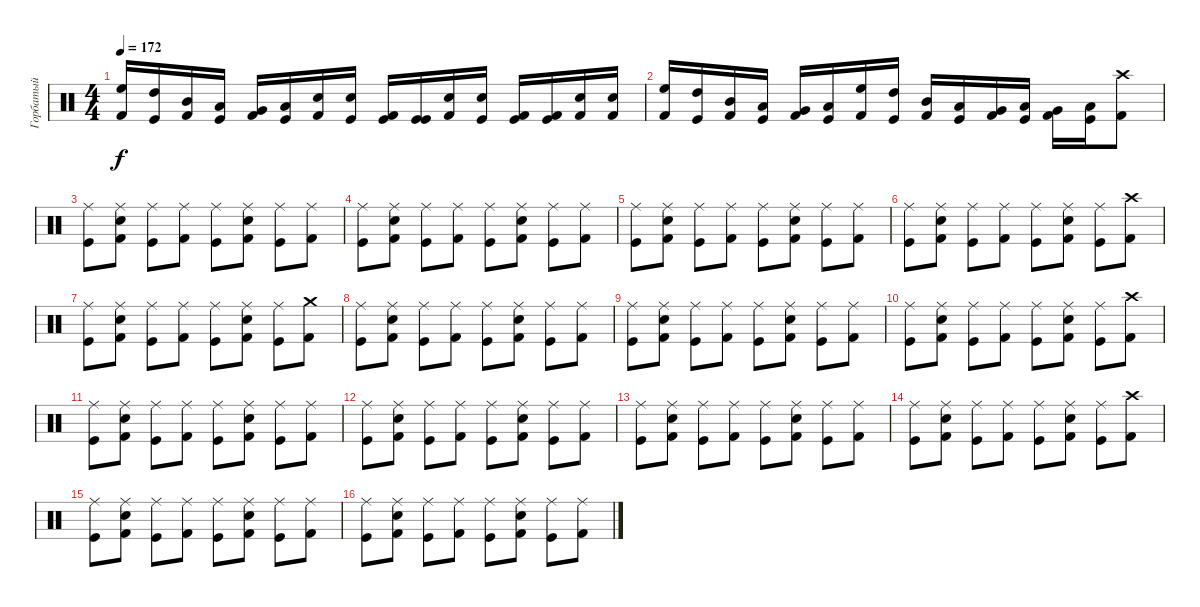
\track ("Горбатый" "Горбатый") {instrument percussion}
\staff {score}
\articulation defaults
\ts (4 4)
\tempo 172
\clef neutral
\ks c
("Kick (hit) 2" "High Floor Tom (hit)").16{dy f} ("Kick (hit)" "High Tom (hit)").16 ("Kick (hit) 2" "Mid Tom (hit)").16 ("Kick (hit)" "Low Tom (hit)").16 ("Kick (hit) 2" "Very Low Tom (hit)").16 ("Kick (hit)" "Low Floor Tom (hit)").16 ("Kick (hit) 2" "Electric Snare (hit)").16 ("Kick (hit)" "Electric Snare (hit)").16 ("Kick (hit) 2" "Kick (hit)").16 ("Kick (hit)" "Kick (hit)").16 ("Kick (hit) 2" "Electric Snare (hit)").16 ("Kick (hit)" "Electric Snare (hit)").16 ("Kick (hit) 2" "Kick (hit)").16 ("Kick (hit)" "Kick (hit) 2").16 ("Kick (hit) 2" "Electric Snare (hit)").16 ("Kick (hit) 2" "Electric Snare (hit)").16 |
("Kick (hit) 2" "High Floor Tom (hit)").16 ("Kick (hit)" "High Tom (hit)").16 ("Kick (hit) 2" "Mid Tom (hit)").16 ("Kick (hit)" "Low Tom (hit)").16 ("Kick (hit) 2" "Very Low Tom (hit)").16 ("Kick (hit)" "Low Floor Tom (hit)").16 ("Kick (hit) 2" "High Floor Tom (hit)").16 ("Kick (hit)" "High Tom (hit)").16 ("Kick (hit) 2" "Mid Tom (hit)").16 ("Kick (hit)" "Low Tom (hit)").16 ("Kick (hit) 2" "Very Low Tom (hit)").16 ("Kick (hit)" "Low Floor Tom (hit)").16 ("Kick (hit) 2" "Very Low Tom (hit)").16 ("Kick (hit)" "Low Floor Tom (hit)").16 ("Crash high (hit)" "Kick (hit) 2").8 |
("Ride (middle)" "Kick (hit)").8 ("Electric Snare (hit)" "Ride (middle)" "Kick (hit) 2").8 ("Ride (middle)" "Kick (hit)").8 ("Ride (middle)" "Kick (hit) 2").8 ("Ride (middle)" "Kick (hit)").8 ("Electric Snare (hit)" "Ride (middle)" "Kick (hit) 2").8 ("Ride (middle)" "Kick (hit)").8 ("Ride (middle)" "Kick (hit) 2").8 |
("Ride (middle)" "Kick (hit)").8 ("Electric Snare (hit)" "Ride (middle)" "Kick (hit) 2").8 ("Ride (middle)" "Kick (hit)").8 ("Ride (middle)" "Kick (hit) 2").8 ("Ride (middle)" "Kick (hit)").8 ("Electric Snare (hit)" "Ride (middle)" "Kick (hit) 2").8 ("Ride (middle)" "Kick (hit)").8 ("Ride (middle)" "Kick (hit) 2").8 |
("Ride (middle)" "Kick (hit)").8 ("Electric Snare (hit)" "Ride (middle)" "Kick (hit) 2").8 ("Ride (middle)" "Kick (hit)").8 ("Ride (middle)" "Kick (hit) 2").8 ("Ride (middle)" "Kick (hit)").8 ("Electric Snare (hit)" "Ride (middle)" "Kick (hit) 2").8 ("Ride (middle)" "Kick (hit)").8 ("Ride (middle)" "Kick (hit) 2").8 |
("Ride (middle)" "Kick (hit)").8 ("Electric Snare (hit)" "Ride (middle)" "Kick (hit) 2").8 ("Ride (middle)" "Kick (hit)").8 ("Ride (middle)" "Kick (hit) 2").8 ("Ride (middle)" "Kick (hit)").8 ("Electric Snare (hit)" "Ride (middle)" "Kick (hit) 2").8 ("Ride (middle)" "Kick (hit)").8 ("Crash high (hit)" "Kick (hit) 2").8 |
("Ride (middle)" "Kick (hit)").8 ("Electric Snare (hit)" "Ride (middle)" "Kick (hit) 2").8 ("Ride (middle)" "Kick (hit)").8 ("Ride (middle)" "Kick (hit) 2").8 ("Ride (middle)" "Kick (hit)").8 ("Electric Snare (hit)" "Ride (middle)" "Kick (hit) 2").8 ("Ride (middle)" "Kick (hit)").8 ("Crash medium (hit)" "Kick (hit) 2").8 |
("Ride (middle)" "Kick (hit)").8 ("Electric Snare (hit)" "Ride (middle)" "Kick (hit) 2").8 ("Ride (middle)" "Kick (hit)").8 ("Ride (middle)" "Kick (hit) 2").8 ("Ride (middle)" "Kick (hit)").8 ("Electric Snare (hit)" "Ride (middle)" "Kick (hit) 2").8 ("Ride (middle)" "Kick (hit)").8 ("Ride (middle)" "Kick (hit) 2").8 |
("Ride (middle)" "Kick (hit)").8 ("Electric Snare (hit)" "Ride (middle)" "Kick (hit) 2").8 ("Ride (middle)" "Kick (hit)").8 ("Ride (middle)" "Kick (hit) 2").8 ("Ride (middle)" "Kick (hit)").8 ("Electric Snare (hit)" "Ride (middle)" "Kick (hit) 2").8 ("Ride (middle)" "Kick (hit)").8 ("Ride (middle)" "Kick (hit) 2").8 |
("Ride (middle)" "Kick (hit)").8 ("Electric Snare (hit)" "Ride (middle)" "Kick (hit) 2").8 ("Ride (middle)" "Kick (hit)").8 ("Ride (middle)" "Kick (hit) 2").8 ("Ride (middle)" "Kick (hit)").8 ("Electric Snare (hit)" "Ride (middle)" "Kick (hit) 2").8 ("Ride (middle)" "Kick (hit)").8 ("Crash high (hit)" "Kick (hit) 2").8 |
("Ride (middle)" "Kick (hit)").8 ("Electric Snare (hit)" "Ride (middle)" "Kick (hit) 2").8 ("Ride (middle)" "Kick (hit)").8 ("Ride (middle)" "Kick (hit) 2").8 ("Ride (middle)" "Kick (hit)").8 ("Electric Snare (hit)" "Ride (middle)" "Kick (hit) 2").8 ("Ride (middle)" "Kick (hit)").8 ("Ride (middle)" "Kick (hit) 2").8 |
("Ride (middle)" "Kick (hit)").8 ("Electric Snare (hit)" "Ride (middle)" "Kick (hit) 2").8 ("Ride (middle)" "Kick (hit)").8 ("Ride (middle)" "Kick (hit) 2").8 ("Ride (middle)" "Kick (hit)").8 ("Electric Snare (hit)" "Ride (middle)" "Kick (hit) 2").8 ("Ride (middle)" "Kick (hit)").8 ("Ride (middle)" "Kick (hit) 2").8 |
("Ride (middle)" "Kick (hit)").8 ("Electric Snare (hit)" "Ride (middle)" "Kick (hit) 2").8 ("Ride (middle)" "Kick (hit)").8 ("Ride (middle)" "Kick (hit) 2").8 ("Ride (middle)" "Kick (hit)").8 ("Electric Snare (hit)" "Ride (middle)" "Kick (hit) 2").8 ("Ride (middle)" "Kick (hit)").8 ("Ride (middle)" "Kick (hit) 2").8 |
("Ride (middle)" "Kick (hit)").8 ("Electric Snare (hit)" "Ride (middle)" "Kick (hit) 2").8 ("Ride (middle)" "Kick (hit)").8 ("Ride (middle)" "Kick (hit) 2").8 ("Ride (middle)" "Kick (hit)").8 ("Electric Snare (hit)" "Ride (middle)" "Kick (hit) 2").8 ("Ride (middle)" "Kick (hit)").8 ("Crash high (hit)" "Kick (hit) 2").8 |
("Ride (middle)" "Kick (hit)").8 ("Electric Snare (hit)" "Ride (middle)" "Kick (hit) 2").8 ("Ride (middle)" "Kick (hit)").8 ("Ride (middle)" "Kick (hit) 2").8 ("Ride (middle)" "Kick (hit)").8 ("Electric Snare (hit)" "Ride (middle)" "Kick (hit) 2").8 ("Ride (middle)" "Kick (hit)").8 ("Ride (middle)" "Kick (hit) 2").8 |
("Ride (middle)" "Kick (hit)").8 ("Electric Snare (hit)" "Ride (middle)" "Kick (hit) 2").8 ("Ride (middle)" "Kick (hit)").8 ("Ride (middle)" "Kick (hit) 2").8 ("Ride (middle)" "Kick (hit)").8 ("Electric Snare (hit)" "Ride (middle)" "Kick (hit) 2").8 ("Ride (middle)" "Kick (hit)").8 ("Ride (middle)" "Kick (hit) 2").8
